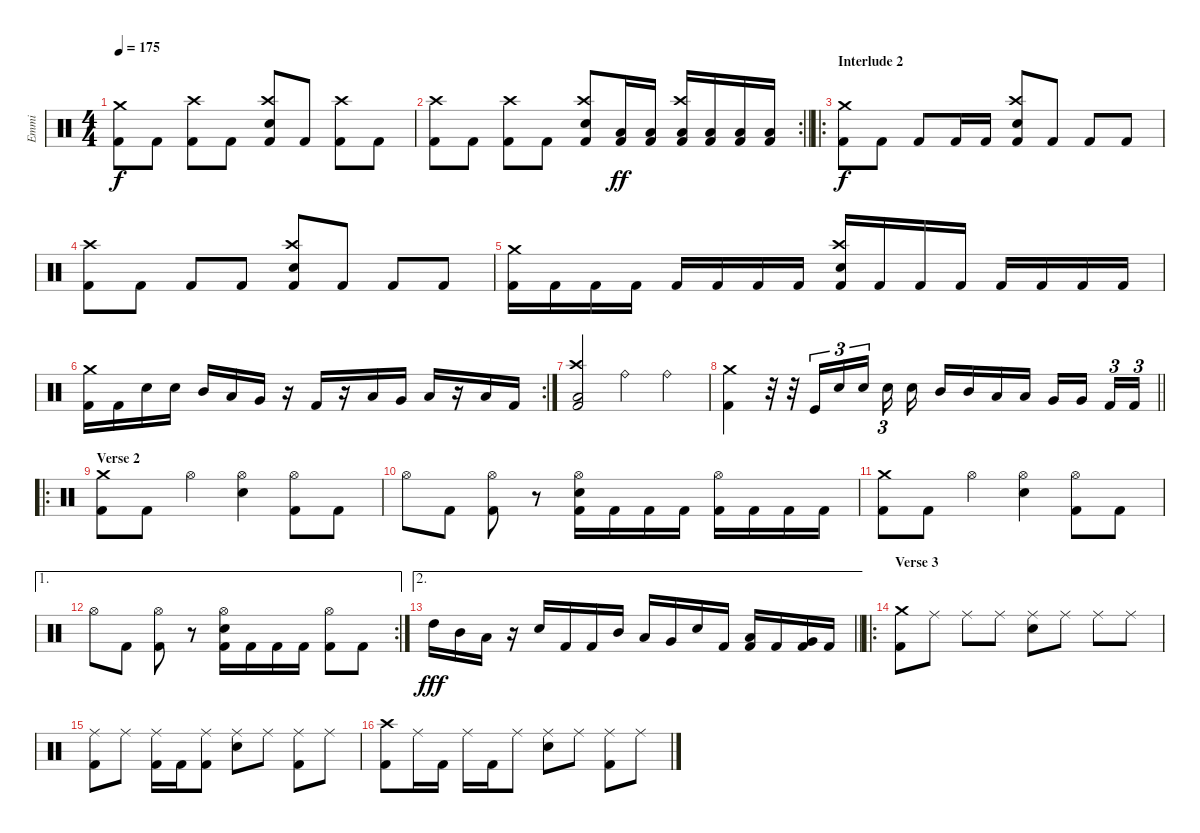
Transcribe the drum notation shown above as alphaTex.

\track ("Emmi" "Emmi") {instrument percussion}
\staff {score}
\articulation defaults
\ts (4 4)
\tempo 175
\clef neutral
\ks c
("Crash medium (hit)" "Kick (hit) 2").8{dy f} "Kick (hit) 2".8 ("Crash high (hit)" "Kick (hit) 2").8 "Kick (hit) 2".8 ("Crash high (hit)" "Electric Snare (hit)" "Kick (hit) 2").8 "Kick (hit) 2".8 ("Crash high (hit)" "Kick (hit) 2").8 "Kick (hit) 2".8 |
\rc 2
\barLineRight lightlight
("Crash high (hit)" "Kick (hit) 2").8 "Kick (hit) 2".8 ("Crash high (hit)" "Kick (hit) 2").8 "Kick (hit) 2".8 ("Crash high (hit)" "Electric Snare (hit)" "Kick (hit) 2").8 ("Low Floor Tom (hit)" "Kick (hit) 2").16{dy ff} ("Low Floor Tom (hit)" "Kick (hit) 2").16 ("Crash high (hit)" "Low Floor Tom (hit)" "Kick (hit) 2").16 ("Low Floor Tom (hit)" "Kick (hit) 2").16 ("Low Floor Tom (hit)" "Kick (hit) 2").16 ("Low Floor Tom (hit)" "Kick (hit) 2").16 |
\ro
\section ("" "Interlude 2")
("Crash medium (hit)" "Kick (hit) 2").8{dy f} "Kick (hit) 2".8 "Kick (hit) 2".8 "Kick (hit) 2".16 "Kick (hit) 2".16 ("Crash high (hit)" "Electric Snare (hit)" "Kick (hit) 2").8 "Kick (hit) 2".8 "Kick (hit) 2".8 "Kick (hit) 2".8 |
("Crash high (hit)" "Kick (hit) 2").8 "Kick (hit) 2".8 "Kick (hit) 2".8 "Kick (hit) 2".8 ("Crash high (hit)" "Electric Snare (hit)" "Kick (hit) 2").8 "Kick (hit) 2".8 "Kick (hit) 2".8 "Kick (hit) 2".8 |
("Crash medium (hit)" "Kick (hit) 2").16 "Kick (hit) 2".16 "Kick (hit) 2".16 "Kick (hit) 2".16 "Kick (hit) 2".16 "Kick (hit) 2".16 "Kick (hit) 2".16 "Kick (hit) 2".16 ("Crash high (hit)" "Electric Snare (hit)" "Kick (hit) 2").16 "Kick (hit) 2".16 "Kick (hit) 2".16 "Kick (hit) 2".16 "Kick (hit) 2".16 "Kick (hit) 2".16 "Kick (hit) 2".16 "Kick (hit) 2".16 |
\rc 2
("Crash medium (hit)" "Kick (hit) 2").16 "Kick (hit) 2".16 "Electric Snare (hit)".16 "Electric Snare (hit)".16 "Mid Tom (hit)".16 "Low Tom (hit)".16 "Very Low Tom (hit)".16 r.16 "Kick (hit) 2".16 r.16 "Low Tom (hit)".16 "Very Low Tom (hit)".16 "Low Floor Tom (hit)".16 r.16 "Low Floor Tom (hit)".16 "Kick (hit) 2".16 |
("Crash high (hit)" "Low Floor Tom (hit)" "Kick (hit) 2").2 "Ride (bell)".4 "Ride (bell)".4 |
\barLineRight lightlight
("Crash medium (hit)" "Kick (hit) 2").4 r.32 r.32 "Kick (hit)".16{tu (3 2)} "Electric Snare (hit)".16{tu (3 2)} "Electric Snare (hit)".16{tu (3 2) beam splitsecondary} "Electric Snare (hit)".16{tu (3 2)} "Electric Snare (hit)".16 "Mid Tom (hit)".16 "Mid Tom (hit)".16 "Low Tom (hit)".16 "Low Tom (hit)".16 "Very Low Tom (hit)".16 "Very Low Tom (hit)".16{beam splitsecondary} "Kick (hit) 2".16{tu (3 2)} "Kick (hit) 2".16{tu (3 2)} |
\ro
\section ("" "Verse 2")
("Crash medium (hit)" "Kick (hit) 2").8 "Kick (hit) 2".8 "Hi-Hat (open)".4 ("Hi-Hat (open)" "Electric Snare (hit)").4 ("Hi-Hat (open)" "Kick (hit) 2").8 "Kick (hit) 2".8 |
"Hi-Hat (open)".8 "Kick (hit) 2".8 ("Hi-Hat (open)" "Kick (hit) 2").8 r.8 ("Hi-Hat (open)" "Electric Snare (hit)" "Kick (hit) 2").16 "Kick (hit) 2".16 "Kick (hit) 2".16 "Kick (hit) 2".16 ("Hi-Hat (open)" "Kick (hit) 2").16 "Kick (hit) 2".16 "Kick (hit) 2".16 "Kick (hit) 2".16 |
("Crash medium (hit)" "Kick (hit) 2").8 "Kick (hit) 2".8 "Hi-Hat (open)".4 ("Hi-Hat (open)" "Electric Snare (hit)").4 ("Hi-Hat (open)" "Kick (hit) 2").8 "Kick (hit) 2".8 |
\ae 1
\rc 2 "Hi-Hat (open)".8 "Kick (hit) 2".8
("Hi-Hat (open)" "Kick (hit) 2").8 r.8 ("Hi-Hat (open)" "Electric Snare (hit)" "Kick (hit) 2").16 "Kick (hit) 2".16 "Kick (hit) 2".16 "Kick (hit) 2".16 ("Hi-Hat (open)" "Kick (hit) 2").8 "Kick (hit) 2".8 |
\ae 2
\barLineRight lightlight "High Tom (hit)".16{dy fff} "Mid Tom (hit)".16 "Low Tom (hit)".16
r.16 "Electric Snare (hit)".16 "Kick (hit) 2".16 "Kick (hit) 2".16 "Mid Tom (hit)".16 "Low Tom (hit)".16 "Very Low Tom (hit)".16 "Electric Snare (hit)".16 "Kick (hit) 2".16 ("Low Floor Tom (hit)" "Kick (hit) 2").16 "Kick (hit) 2".16 ("Very Low Tom (hit)" "Kick (hit) 2").16 "Kick (hit) 2".16 |
\ro
\section ("" "Verse 3 ")
("Crash medium (hit)" "Kick (hit) 2").8 "Ride (middle)".8 "Ride (middle)".8 "Ride (middle)".8 ("Ride (middle)" "Electric Snare (hit)").8 "Ride (middle)".8 "Ride (middle)".8 "Ride (middle)".8 |
("Ride (middle)" "Kick (hit) 2").8 "Ride (middle)".8 ("Ride (middle)" "Kick (hit) 2").16 "Kick (hit) 2".16 ("Ride (middle)" "Kick (hit) 2").8 ("Ride (middle)" "Electric Snare (hit)").8 "Ride (middle)".8 ("Ride (middle)" "Kick (hit) 2").8 "Ride (middle)".8 |
("Crash high (hit)" "Kick (hit) 2").8 "Ride (middle)".16 "Kick (hit) 2".16 "Ride (middle)".16 "Kick (hit) 2".16 "Ride (middle)".8 ("Ride (middle)" "Electric Snare (hit)").8 "Ride (middle)".8 ("Ride (middle)" "Kick (hit) 2").8 "Ride (middle)".8
